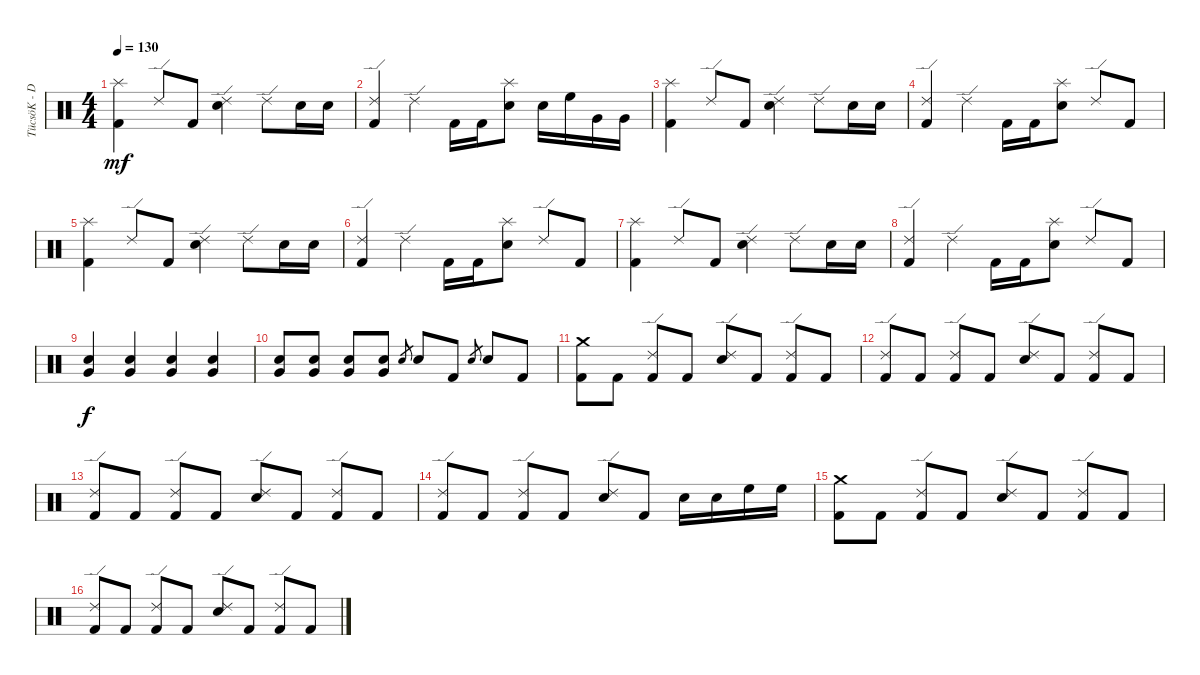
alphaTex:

\track ("TücsöK - Dob" "TücsöK - D") {instrument percussion}
\staff {score}
\articulation defaults
\ts (4 4)
\tempo 130
\clef neutral
\ks c
("Splash (hit)" "Kick (hit) 2").4{dy mf} "Ride (edge) 2".8 "Kick (hit) 2".8 ("Ride (edge) 2" "Snare (hit) 2").4 "Ride (edge) 2".8 "Snare (hit) 2".16 "Snare (hit) 2".16 |
("Ride (edge) 2" "Kick (hit) 2").4 "Ride (edge) 2".4 "Kick (hit) 2".16 "Kick (hit) 2".16 ("Splash (hit)" "Snare (hit) 2").8 "Snare (hit) 2".16 "High Floor Tom (hit)".16 "Very Low Tom (hit)".16 "Very Low Tom (hit)".16 |
("Splash (hit)" "Kick (hit) 2").4 "Ride (edge) 2".8 "Kick (hit) 2".8 ("Ride (edge) 2" "Snare (hit) 2").4 "Ride (edge) 2".8 "Snare (hit) 2".16 "Snare (hit) 2".16 |
("Ride (edge) 2" "Kick (hit) 2").4 "Ride (edge) 2".4 "Kick (hit) 2".16 "Kick (hit) 2".16 ("Splash (hit)" "Snare (hit) 2").8 "Ride (edge) 2".8 "Kick (hit) 2".8 |
("Splash (hit)" "Kick (hit) 2").4 "Ride (edge) 2".8 "Kick (hit) 2".8 ("Ride (edge) 2" "Snare (hit) 2").4 "Ride (edge) 2".8 "Snare (hit) 2".16 "Snare (hit) 2".16 |
("Ride (edge) 2" "Kick (hit) 2").4 "Ride (edge) 2".4 "Kick (hit) 2".16 "Kick (hit) 2".16 ("Splash (hit)" "Snare (hit) 2").8 "Ride (edge) 2".8 "Kick (hit) 2".8 |
("Splash (hit)" "Kick (hit) 2").4 "Ride (edge) 2".8 "Kick (hit) 2".8 ("Ride (edge) 2" "Snare (hit) 2").4 "Ride (edge) 2".8 "Snare (hit) 2".16 "Snare (hit) 2".16 |
("Ride (edge) 2" "Kick (hit) 2").4 "Ride (edge) 2".4 "Kick (hit) 2".16 "Kick (hit) 2".16 ("Splash (hit)" "Snare (hit) 2").8 "Ride (edge) 2".8 "Kick (hit) 2".8 |
("Snare (hit) 2" "Very Low Tom (hit)").4{dy f} ("Snare (hit) 2" "Very Low Tom (hit)").4 ("Snare (hit) 2" "Very Low Tom (hit)").4 ("Snare (hit) 2" "Very Low Tom (hit)").4 |
("Snare (hit) 2" "Very Low Tom (hit)").8 ("Snare (hit) 2" "Very Low Tom (hit)").8 ("Snare (hit) 2" "Very Low Tom (hit)").8 ("Snare (hit) 2" "Very Low Tom (hit)").8 "Snare (hit) 2".8{gr} "Snare (hit) 2".8 "Kick (hit) 2".8 "Snare (hit) 2".8{gr} "Snare (hit) 2".8 "Kick (hit) 2".8 |
("Crash medium (hit)" "Kick (hit) 2").8 "Kick (hit) 2".8 ("Ride (edge) 2" "Kick (hit) 2").8 "Kick (hit) 2".8 ("Ride (edge) 2" "Snare (hit) 2").8 "Kick (hit) 2".8 ("Ride (edge) 2" "Kick (hit) 2").8 "Kick (hit) 2".8 |
("Ride (edge) 2" "Kick (hit) 2").8 "Kick (hit) 2".8 ("Ride (edge) 2" "Kick (hit) 2").8 "Kick (hit) 2".8 ("Ride (edge) 2" "Snare (hit) 2").8 "Kick (hit) 2".8 ("Ride (edge) 2" "Kick (hit) 2").8 "Kick (hit) 2".8 |
("Ride (edge) 2" "Kick (hit) 2").8 "Kick (hit) 2".8 ("Ride (edge) 2" "Kick (hit) 2").8 "Kick (hit) 2".8 ("Ride (edge) 2" "Snare (hit) 2").8 "Kick (hit) 2".8 ("Ride (edge) 2" "Kick (hit) 2").8 "Kick (hit) 2".8 |
("Ride (edge) 2" "Kick (hit) 2").8 "Kick (hit) 2".8 ("Ride (edge) 2" "Kick (hit) 2").8 "Kick (hit) 2".8 ("Ride (edge) 2" "Snare (hit) 2").8 "Kick (hit) 2".8 "Snare (hit) 2".16 "Snare (hit) 2".16 "High Floor Tom (hit)".16 "High Floor Tom (hit)".16 |
("Crash medium (hit)" "Kick (hit) 2").8 "Kick (hit) 2".8 ("Ride (edge) 2" "Kick (hit) 2").8 "Kick (hit) 2".8 ("Ride (edge) 2" "Snare (hit) 2").8 "Kick (hit) 2".8 ("Ride (edge) 2" "Kick (hit) 2").8 "Kick (hit) 2".8 |
("Ride (edge) 2" "Kick (hit) 2").8 "Kick (hit) 2".8 ("Ride (edge) 2" "Kick (hit) 2").8 "Kick (hit) 2".8 ("Ride (edge) 2" "Snare (hit) 2").8 "Kick (hit) 2".8 ("Ride (edge) 2" "Kick (hit) 2").8 "Kick (hit) 2".8
